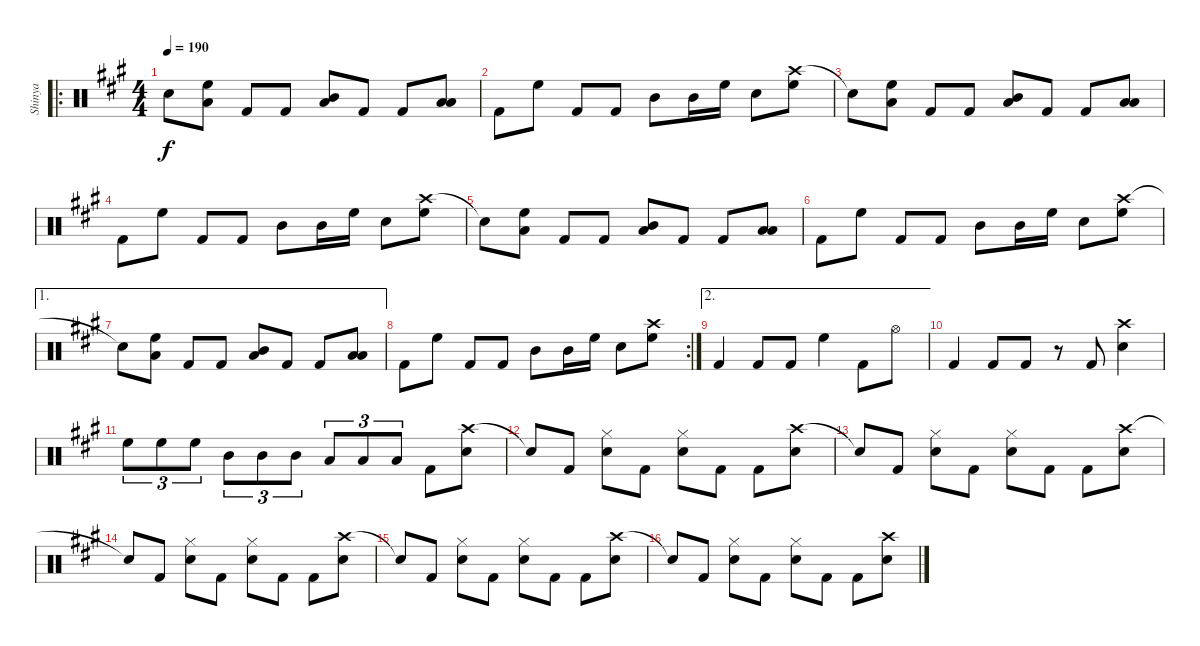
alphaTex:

\track ("Shinya" "Shinya") {instrument percussion}
\staff {score}
\articulation defaults
\ro
\ts (4 4)
\tempo 190
\clef neutral
\ks a "Snare (hit)"{t}.8{dy f}
("High Floor Tom (hit)" "Low Floor Tom (hit)").8 "Kick (hit) 2".8 "Kick (hit) 2".8 ("Mid Tom (hit)" "Low Floor Tom (hit)").8 "Kick (hit) 2".8 "Kick (hit) 2".8 ("Low Tom (hit)" "Low Floor Tom (hit)").8 |
"Kick (hit) 2".8 "High Floor Tom (hit)".8 "Kick (hit) 2".8 "Kick (hit) 2".8 "Mid Tom (hit)".8 "Mid Tom (hit)".16 "High Floor Tom (hit)".16 "Snare (hit) 2".8 ("Crash high (hit)" "High Floor Tom (hit)").8 |
"Snare (hit)"{t}.8 ("High Floor Tom (hit)" "Low Floor Tom (hit)").8 "Kick (hit) 2".8 "Kick (hit) 2".8 ("Mid Tom (hit)" "Low Floor Tom (hit)").8 "Kick (hit) 2".8 "Kick (hit) 2".8 ("Low Tom (hit)" "Low Floor Tom (hit)").8 |
"Kick (hit) 2".8 "High Floor Tom (hit)".8 "Kick (hit) 2".8 "Kick (hit) 2".8 "Mid Tom (hit)".8 "Mid Tom (hit)".16 "High Floor Tom (hit)".16 "Snare (hit) 2".8 ("Crash high (hit)" "High Floor Tom (hit)").8 |
"Snare (hit)"{t}.8 ("High Floor Tom (hit)" "Low Floor Tom (hit)").8 "Kick (hit) 2".8 "Kick (hit) 2".8 ("Mid Tom (hit)" "Low Floor Tom (hit)").8 "Kick (hit) 2".8 "Kick (hit) 2".8 ("Low Tom (hit)" "Low Floor Tom (hit)").8 |
"Kick (hit) 2".8 "High Floor Tom (hit)".8 "Kick (hit) 2".8 "Kick (hit) 2".8 "Mid Tom (hit)".8 "Mid Tom (hit)".16 "High Floor Tom (hit)".16 "Snare (hit) 2".8 ("Crash high (hit)" "High Floor Tom (hit)").8 |
\ae 1 "Snare (hit)"{t}.8
("High Floor Tom (hit)" "Low Floor Tom (hit)").8 "Kick (hit) 2".8 "Kick (hit) 2".8 ("Mid Tom (hit)" "Low Floor Tom (hit)").8 "Kick (hit) 2".8 "Kick (hit) 2".8 ("Low Tom (hit)" "Low Floor Tom (hit)").8 |
\rc 2 "Kick (hit) 2".8 "High Floor Tom (hit)".8 "Kick (hit) 2".8 "Kick (hit) 2".8 "Mid Tom (hit)".8 "Mid Tom (hit)".16 "High Floor Tom (hit)".16 "Snare (hit) 2".8
("Crash high (hit)" "High Floor Tom (hit)").8 |
\ae 2 "Kick (hit) 2".4 "Kick (hit) 2".8 "Kick (hit) 2".8 "High Floor Tom (hit)".4 "Kick (hit) 2".8 "Hi-Hat (open)".8
|
"Kick (hit) 2".4 "Kick (hit) 2".8 "Kick (hit) 2".8 r.8 "Kick (hit) 2".8 ("Crash high (hit)" "Snare (hit) 2").4 |
"High Floor Tom (hit)".8{tu (3 2)} "High Floor Tom (hit)".8{tu (3 2)} "High Floor Tom (hit)".8{tu (3 2)} "Mid Tom (hit)".8{tu (3 2)} "Mid Tom (hit)".8{tu (3 2)} "Mid Tom (hit)".8{tu (3 2)} "Low Tom (hit)".8{tu (3 2)} "Low Tom (hit)".8{tu (3 2)} "Low Tom (hit)".8{tu (3 2)} "Kick (hit) 2".8 ("Crash high (hit)" "Snare (hit) 2").8 |
"Snare (hit)"{t}.8 "Kick (hit) 2".8 ("Hi-Hat (closed)" "Snare (hit) 2").8 "Kick (hit) 2".8 ("Hi-Hat (closed)" "Snare (hit) 2").8 "Kick (hit) 2".8 "Kick (hit) 2".8 ("Crash high (hit)" "Snare (hit) 2").8 |
"Snare (hit)"{t}.8 "Kick (hit) 2".8 ("Hi-Hat (closed)" "Snare (hit) 2").8 "Kick (hit) 2".8 ("Hi-Hat (closed)" "Snare (hit) 2").8 "Kick (hit) 2".8 "Kick (hit) 2".8 ("Crash high (hit)" "Snare (hit) 2").8 |
"Snare (hit)"{t}.8 "Kick (hit) 2".8 ("Hi-Hat (closed)" "Snare (hit) 2").8 "Kick (hit) 2".8 ("Hi-Hat (closed)" "Snare (hit) 2").8 "Kick (hit) 2".8 "Kick (hit) 2".8 ("Crash high (hit)" "Snare (hit) 2").8 |
"Snare (hit)"{t}.8 "Kick (hit) 2".8 ("Hi-Hat (closed)" "Snare (hit) 2").8 "Kick (hit) 2".8 ("Hi-Hat (closed)" "Snare (hit) 2").8 "Kick (hit) 2".8 "Kick (hit) 2".8 ("Crash high (hit)" "Snare (hit) 2").8 |
"Snare (hit)"{t}.8 "Kick (hit) 2".8 ("Hi-Hat (closed)" "Snare (hit) 2").8 "Kick (hit) 2".8 ("Hi-Hat (closed)" "Snare (hit) 2").8 "Kick (hit) 2".8 "Kick (hit) 2".8 ("Crash high (hit)" "Snare (hit) 2").8
